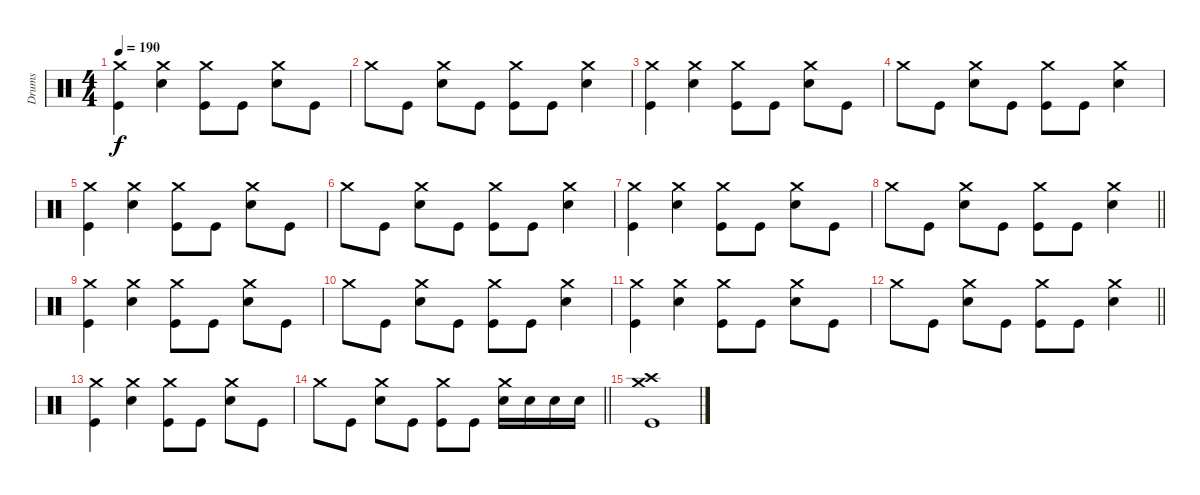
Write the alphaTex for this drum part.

\track ("Drums" "Drums") {instrument percussion}
\staff {score}
\articulation defaults
\ts (4 4)
\tempo 190
\clef neutral
\ks c
("Crash medium (hit)" "Kick (hit)").4{dy f} ("Crash medium (hit)" "Snare (hit) 2").4 ("Crash medium (hit)" "Kick (hit)").8 "Kick (hit)".8 ("Crash medium (hit)" "Snare (hit) 2").8 "Kick (hit)".8 |
"Crash medium (hit)".8 "Kick (hit)".8 ("Crash medium (hit)" "Snare (hit) 2").8 "Kick (hit)".8 ("Crash medium (hit)" "Kick (hit)").8 "Kick (hit)".8 ("Crash medium (hit)" "Snare (hit) 2").4 |
("Crash medium (hit)" "Kick (hit)").4 ("Crash medium (hit)" "Snare (hit) 2").4 ("Crash medium (hit)" "Kick (hit)").8 "Kick (hit)".8 ("Crash medium (hit)" "Snare (hit) 2").8 "Kick (hit)".8 |
"Crash medium (hit)".8 "Kick (hit)".8 ("Crash medium (hit)" "Snare (hit) 2").8 "Kick (hit)".8 ("Crash medium (hit)" "Kick (hit)").8 "Kick (hit)".8 ("Crash medium (hit)" "Snare (hit) 2").4 |
("Crash medium (hit)" "Kick (hit)").4 ("Crash medium (hit)" "Snare (hit) 2").4 ("Crash medium (hit)" "Kick (hit)").8 "Kick (hit)".8 ("Crash medium (hit)" "Snare (hit) 2").8 "Kick (hit)".8 |
"Crash medium (hit)".8 "Kick (hit)".8 ("Crash medium (hit)" "Snare (hit) 2").8 "Kick (hit)".8 ("Crash medium (hit)" "Kick (hit)").8 "Kick (hit)".8 ("Crash medium (hit)" "Snare (hit) 2").4 |
("Crash medium (hit)" "Kick (hit)").4 ("Crash medium (hit)" "Snare (hit) 2").4 ("Crash medium (hit)" "Kick (hit)").8 "Kick (hit)".8 ("Crash medium (hit)" "Snare (hit) 2").8 "Kick (hit)".8 |
\barLineRight lightlight "Crash medium (hit)".8 "Kick (hit)".8
("Crash medium (hit)" "Snare (hit) 2").8 "Kick (hit)".8 ("Crash medium (hit)" "Kick (hit)").8 "Kick (hit)".8 ("Crash medium (hit)" "Snare (hit) 2").4 |
("Crash medium (hit)" "Kick (hit)").4 ("Crash medium (hit)" "Snare (hit) 2").4 ("Crash medium (hit)" "Kick (hit)").8 "Kick (hit)".8 ("Crash medium (hit)" "Snare (hit) 2").8 "Kick (hit)".8 |
"Crash medium (hit)".8 "Kick (hit)".8 ("Crash medium (hit)" "Snare (hit) 2").8 "Kick (hit)".8 ("Crash medium (hit)" "Kick (hit)").8 "Kick (hit)".8 ("Crash medium (hit)" "Snare (hit) 2").4 |
("Crash medium (hit)" "Kick (hit)").4 ("Crash medium (hit)" "Snare (hit) 2").4 ("Crash medium (hit)" "Kick (hit)").8 "Kick (hit)".8 ("Crash medium (hit)" "Snare (hit) 2").8 "Kick (hit)".8 |
\barLineRight lightlight "Crash medium (hit)".8 "Kick (hit)".8
("Crash medium (hit)" "Snare (hit) 2").8 "Kick (hit)".8 ("Crash medium (hit)" "Kick (hit)").8 "Kick (hit)".8 ("Crash medium (hit)" "Snare (hit) 2").4 |
("Crash medium (hit)" "Kick (hit)").4 ("Crash medium (hit)" "Snare (hit) 2").4 ("Crash medium (hit)" "Kick (hit)").8 "Kick (hit)".8 ("Crash medium (hit)" "Snare (hit) 2").8 "Kick (hit)".8 |
\barLineRight lightlight "Crash medium (hit)".8 "Kick (hit)".8
("Crash medium (hit)" "Snare (hit) 2").8 "Kick (hit)".8 ("Crash medium (hit)" "Kick (hit)").8 "Kick (hit)".8 ("Crash medium (hit)" "Snare (hit) 2").16 "Snare (hit) 2".16 "Snare (hit) 2".16 "Snare (hit) 2".16 |
("Crash medium (hit)" "Crash high (hit)" "Kick (hit)").1
